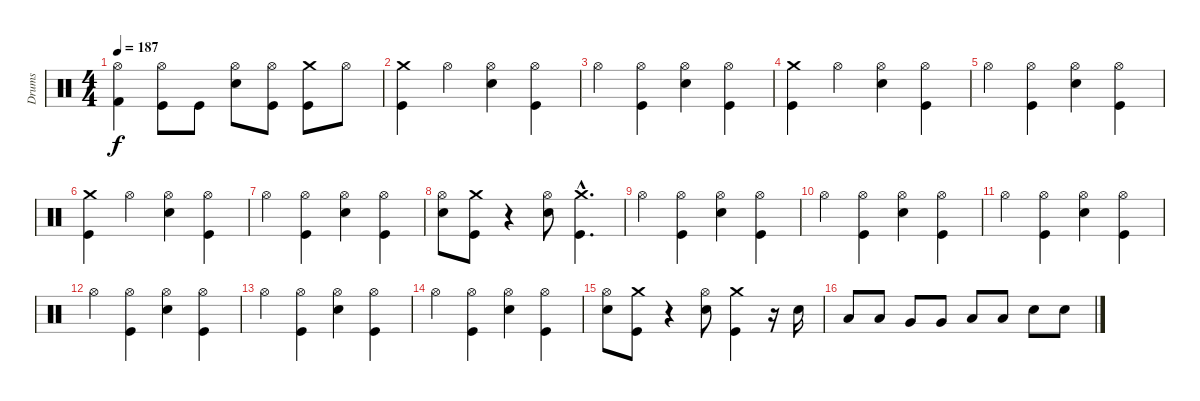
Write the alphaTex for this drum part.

\track ("Drums" "Drums") {instrument percussion}
\staff {score}
\articulation defaults
\ts (4 4)
\tempo 187
\clef neutral
\ks c
("Kick (hit) 2" "Hi-Hat (open)").4{dy f} ("Hi-Hat (open)" "Kick (hit)").8 "Kick (hit)".8 ("Hi-Hat (open)" "Electric Snare (hit)").8 ("Hi-Hat (open)" "Kick (hit)").8 ("Kick (hit)" "Crash medium (hit)").8 "Hi-Hat (open)".8 |
("Kick (hit)" "Crash medium (hit)").4 "Hi-Hat (open)".4 ("Hi-Hat (open)" "Electric Snare (hit)").4 ("Hi-Hat (open)" "Kick (hit)").4 |
"Hi-Hat (open)".4 ("Hi-Hat (open)" "Kick (hit)").4 ("Hi-Hat (open)" "Electric Snare (hit)").4 ("Hi-Hat (open)" "Kick (hit)").4 |
("Kick (hit)" "Crash medium (hit)").4 "Hi-Hat (open)".4 ("Hi-Hat (open)" "Electric Snare (hit)").4 ("Hi-Hat (open)" "Kick (hit)").4 |
"Hi-Hat (open)".4 ("Hi-Hat (open)" "Kick (hit)").4 ("Hi-Hat (open)" "Electric Snare (hit)").4 ("Hi-Hat (open)" "Kick (hit)").4 |
("Kick (hit)" "Crash medium (hit)").4 "Hi-Hat (open)".4 ("Hi-Hat (open)" "Electric Snare (hit)").4 ("Hi-Hat (open)" "Kick (hit)").4 |
"Hi-Hat (open)".4 ("Hi-Hat (open)" "Kick (hit)").4 ("Hi-Hat (open)" "Electric Snare (hit)").4 ("Hi-Hat (open)" "Kick (hit)").4 |
("Hi-Hat (open)" "Electric Snare (hit)").8 ("Kick (hit)" "Crash medium (hit)").8 r.4 ("Hi-Hat (open)" "Electric Snare (hit)").8 ("Kick (hit)"{hac} "Crash medium (hit)"{hac}).4{d} |
"Hi-Hat (open)".4 ("Hi-Hat (open)" "Kick (hit)").4 ("Hi-Hat (open)" "Electric Snare (hit)").4 ("Hi-Hat (open)" "Kick (hit)").4 |
"Hi-Hat (open)".4 ("Hi-Hat (open)" "Kick (hit)").4 ("Hi-Hat (open)" "Electric Snare (hit)").4 ("Hi-Hat (open)" "Kick (hit)").4 |
"Hi-Hat (open)".4 ("Hi-Hat (open)" "Kick (hit)").4 ("Hi-Hat (open)" "Electric Snare (hit)").4 ("Hi-Hat (open)" "Kick (hit)").4 |
"Hi-Hat (open)".4 ("Hi-Hat (open)" "Kick (hit)").4 ("Hi-Hat (open)" "Electric Snare (hit)").4 ("Hi-Hat (open)" "Kick (hit)").4 |
"Hi-Hat (open)".4 ("Hi-Hat (open)" "Kick (hit)").4 ("Hi-Hat (open)" "Electric Snare (hit)").4 ("Hi-Hat (open)" "Kick (hit)").4 |
"Hi-Hat (open)".4 ("Hi-Hat (open)" "Kick (hit)").4 ("Hi-Hat (open)" "Electric Snare (hit)").4 ("Hi-Hat (open)" "Kick (hit)").4 |
("Hi-Hat (open)" "Electric Snare (hit)").8 ("Kick (hit)" "Crash medium (hit)").8 r.4 ("Hi-Hat (open)" "Electric Snare (hit)").8 ("Kick (hit)" "Crash medium (hit)").4 r.16 "Snare (hit) 2".16 |
"Low Tom (hit)".8 "Low Tom (hit)".8 "Very Low Tom (hit)".8 "Very Low Tom (hit)".8 "Low Floor Tom (hit)".8 "Low Floor Tom (hit)".8 "Electric Snare (hit)".8 "Electric Snare (hit)".8
